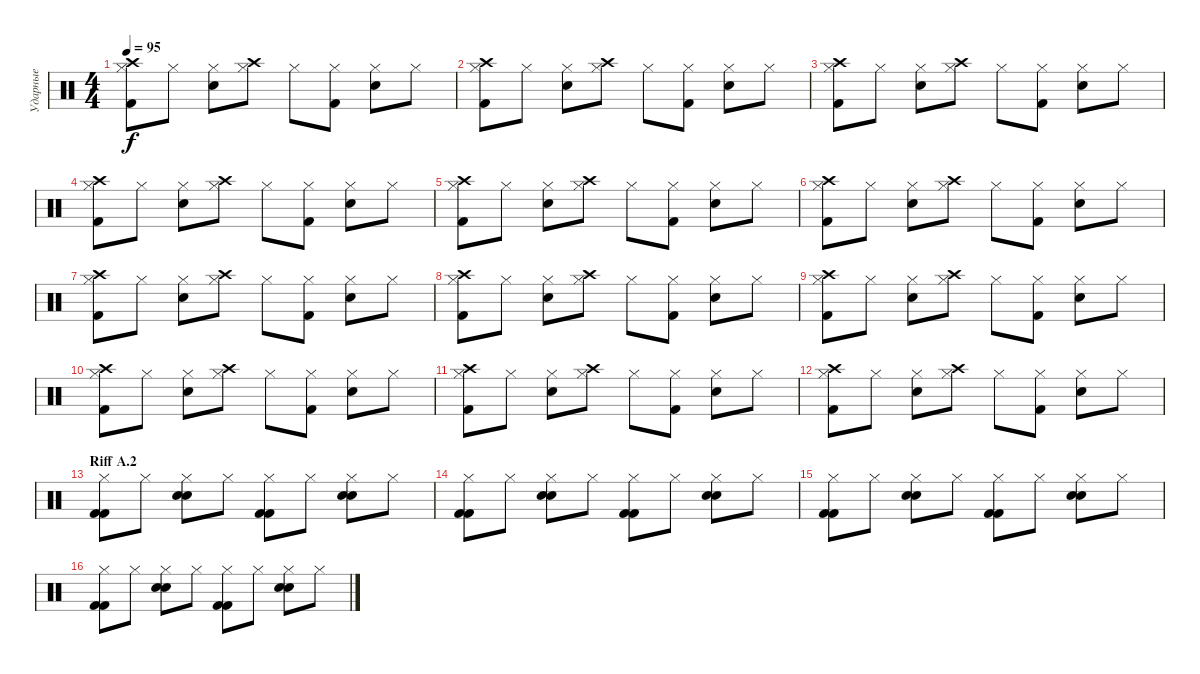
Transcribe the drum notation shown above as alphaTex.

\track ("Ударные" "Ударные") {instrument percussion}
\staff {score}
\articulation defaults
\ts (4 4)
\tempo 95
\clef neutral
\ks c
("Crash high (hit)" "Hi-Hat (closed)" "Kick (hit) 2").8{dy f} "Hi-Hat (closed)".8 ("Hi-Hat (closed)" "Snare (hit) 2").8 ("Crash high (hit)" "Hi-Hat (closed)").8 "Hi-Hat (closed)".8 ("Hi-Hat (closed)" "Kick (hit) 2").8 ("Hi-Hat (closed)" "Snare (hit) 2").8 "Hi-Hat (closed)".8 |
("Crash high (hit)" "Hi-Hat (closed)" "Kick (hit) 2").8 "Hi-Hat (closed)".8 ("Hi-Hat (closed)" "Snare (hit) 2").8 ("Crash high (hit)" "Hi-Hat (closed)").8 "Hi-Hat (closed)".8 ("Hi-Hat (closed)" "Kick (hit) 2").8 ("Hi-Hat (closed)" "Snare (hit) 2").8 "Hi-Hat (closed)".8 |
("Crash high (hit)" "Hi-Hat (closed)" "Kick (hit) 2").8 "Hi-Hat (closed)".8 ("Hi-Hat (closed)" "Snare (hit) 2").8 ("Crash high (hit)" "Hi-Hat (closed)").8 "Hi-Hat (closed)".8 ("Hi-Hat (closed)" "Kick (hit) 2").8 ("Hi-Hat (closed)" "Snare (hit) 2").8 "Hi-Hat (closed)".8 |
("Crash high (hit)" "Hi-Hat (closed)" "Kick (hit) 2").8 "Hi-Hat (closed)".8 ("Hi-Hat (closed)" "Snare (hit) 2").8 ("Crash high (hit)" "Hi-Hat (closed)").8 "Hi-Hat (closed)".8 ("Hi-Hat (closed)" "Kick (hit) 2").8 ("Hi-Hat (closed)" "Snare (hit) 2").8 "Hi-Hat (closed)".8 |
("Crash high (hit)" "Hi-Hat (closed)" "Kick (hit) 2").8 "Hi-Hat (closed)".8 ("Hi-Hat (closed)" "Snare (hit) 2").8 ("Crash high (hit)" "Hi-Hat (closed)").8 "Hi-Hat (closed)".8 ("Hi-Hat (closed)" "Kick (hit) 2").8 ("Hi-Hat (closed)" "Snare (hit) 2").8 "Hi-Hat (closed)".8 |
("Crash high (hit)" "Hi-Hat (closed)" "Kick (hit) 2").8 "Hi-Hat (closed)".8 ("Hi-Hat (closed)" "Snare (hit) 2").8 ("Crash high (hit)" "Hi-Hat (closed)").8 "Hi-Hat (closed)".8 ("Hi-Hat (closed)" "Kick (hit) 2").8 ("Hi-Hat (closed)" "Snare (hit) 2").8 "Hi-Hat (closed)".8 |
("Crash high (hit)" "Hi-Hat (closed)" "Kick (hit) 2").8 "Hi-Hat (closed)".8 ("Hi-Hat (closed)" "Snare (hit) 2").8 ("Crash high (hit)" "Hi-Hat (closed)").8 "Hi-Hat (closed)".8 ("Hi-Hat (closed)" "Kick (hit) 2").8 ("Hi-Hat (closed)" "Snare (hit) 2").8 "Hi-Hat (closed)".8 |
("Crash high (hit)" "Hi-Hat (closed)" "Kick (hit) 2").8 "Hi-Hat (closed)".8 ("Hi-Hat (closed)" "Snare (hit) 2").8 ("Crash high (hit)" "Hi-Hat (closed)").8 "Hi-Hat (closed)".8 ("Hi-Hat (closed)" "Kick (hit) 2").8 ("Hi-Hat (closed)" "Snare (hit) 2").8 "Hi-Hat (closed)".8 |
("Crash high (hit)" "Hi-Hat (closed)" "Kick (hit) 2").8 "Hi-Hat (closed)".8 ("Hi-Hat (closed)" "Snare (hit) 2").8 ("Crash high (hit)" "Hi-Hat (closed)").8 "Hi-Hat (closed)".8 ("Hi-Hat (closed)" "Kick (hit) 2").8 ("Hi-Hat (closed)" "Snare (hit) 2").8 "Hi-Hat (closed)".8 |
("Crash high (hit)" "Hi-Hat (closed)" "Kick (hit) 2").8 "Hi-Hat (closed)".8 ("Hi-Hat (closed)" "Snare (hit) 2").8 ("Crash high (hit)" "Hi-Hat (closed)").8 "Hi-Hat (closed)".8 ("Hi-Hat (closed)" "Kick (hit) 2").8 ("Hi-Hat (closed)" "Snare (hit) 2").8 "Hi-Hat (closed)".8 |
("Crash high (hit)" "Hi-Hat (closed)" "Kick (hit) 2").8 "Hi-Hat (closed)".8 ("Hi-Hat (closed)" "Snare (hit) 2").8 ("Crash high (hit)" "Hi-Hat (closed)").8 "Hi-Hat (closed)".8 ("Hi-Hat (closed)" "Kick (hit) 2").8 ("Hi-Hat (closed)" "Snare (hit) 2").8 "Hi-Hat (closed)".8 |
("Crash high (hit)" "Hi-Hat (closed)" "Kick (hit) 2").8 "Hi-Hat (closed)".8 ("Hi-Hat (closed)" "Snare (hit) 2").8 ("Crash high (hit)" "Hi-Hat (closed)").8 "Hi-Hat (closed)".8 ("Hi-Hat (closed)" "Kick (hit) 2").8 ("Hi-Hat (closed)" "Snare (hit) 2").8 "Hi-Hat (closed)".8 |
\section ("" "Riff A.2")
("Hi-Hat (closed)" "Kick (hit) 2" "Kick (hit) 2").8 "Hi-Hat (closed)".8 ("Hi-Hat (closed)" "Snare (hit) 2" "Snare (hit) 2").8 "Hi-Hat (closed)".8 ("Hi-Hat (closed)" "Kick (hit) 2" "Kick (hit) 2").8 "Hi-Hat (closed)".8 ("Hi-Hat (closed)" "Snare (hit) 2" "Snare (hit) 2").8 "Hi-Hat (closed)".8 |
("Hi-Hat (closed)" "Kick (hit) 2" "Kick (hit) 2").8 "Hi-Hat (closed)".8 ("Hi-Hat (closed)" "Snare (hit) 2" "Snare (hit) 2").8 "Hi-Hat (closed)".8 ("Hi-Hat (closed)" "Kick (hit) 2" "Kick (hit) 2").8 "Hi-Hat (closed)".8 ("Hi-Hat (closed)" "Snare (hit) 2" "Snare (hit) 2").8 "Hi-Hat (closed)".8 |
("Hi-Hat (closed)" "Kick (hit) 2" "Kick (hit) 2").8 "Hi-Hat (closed)".8 ("Hi-Hat (closed)" "Snare (hit) 2" "Snare (hit) 2").8 "Hi-Hat (closed)".8 ("Hi-Hat (closed)" "Kick (hit) 2" "Kick (hit) 2").8 "Hi-Hat (closed)".8 ("Hi-Hat (closed)" "Snare (hit) 2" "Snare (hit) 2").8 "Hi-Hat (closed)".8 |
("Hi-Hat (closed)" "Kick (hit) 2" "Kick (hit) 2").8 "Hi-Hat (closed)".8 ("Hi-Hat (closed)" "Snare (hit) 2" "Snare (hit) 2").8 "Hi-Hat (closed)".8 ("Hi-Hat (closed)" "Kick (hit) 2" "Kick (hit) 2").8 "Hi-Hat (closed)".8 ("Hi-Hat (closed)" "Snare (hit) 2" "Snare (hit) 2").8 "Hi-Hat (closed)".8
